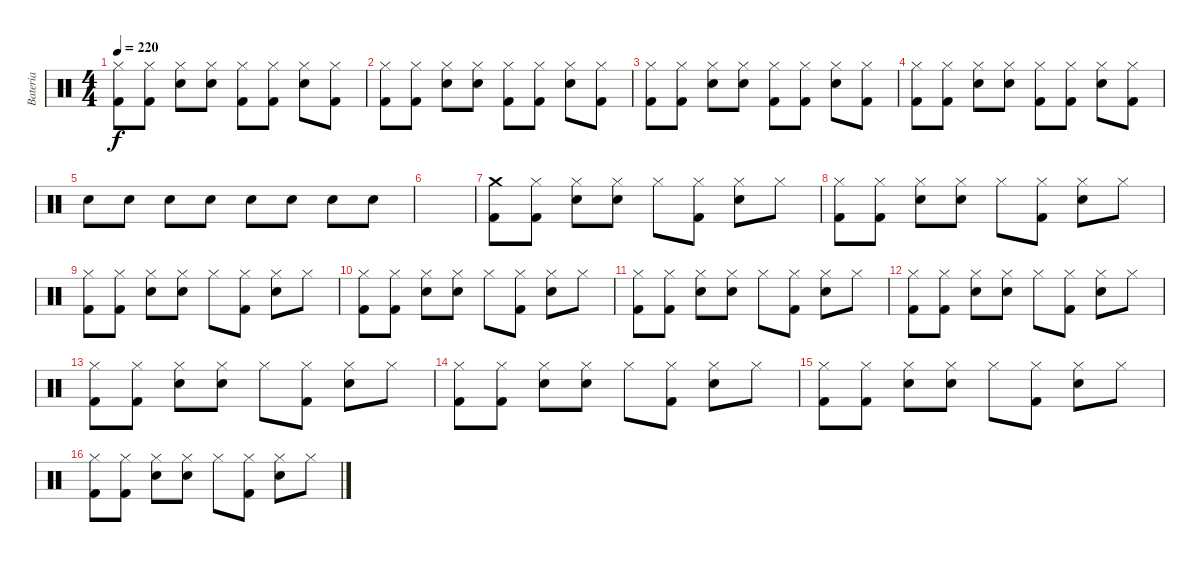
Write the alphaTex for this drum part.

\track ("Bateria" "Bateria") {instrument percussion}
\staff {score}
\articulation defaults
\ts (4 4)
\tempo 220
\clef neutral
\ks c
("Hi-Hat (closed)" "Kick (hit) 2").8{dy f} ("Hi-Hat (closed)" "Kick (hit) 2").8 ("Hi-Hat (closed)" "Electric Snare (hit)").8 ("Hi-Hat (closed)" "Electric Snare (hit)").8 ("Hi-Hat (closed)" "Kick (hit) 2").8 ("Hi-Hat (closed)" "Kick (hit) 2").8 ("Hi-Hat (closed)" "Electric Snare (hit)").8 ("Hi-Hat (closed)" "Kick (hit) 2").8 |
("Hi-Hat (closed)" "Kick (hit) 2").8 ("Hi-Hat (closed)" "Kick (hit) 2").8 ("Hi-Hat (closed)" "Electric Snare (hit)").8 ("Hi-Hat (closed)" "Electric Snare (hit)").8 ("Hi-Hat (closed)" "Kick (hit) 2").8 ("Hi-Hat (closed)" "Kick (hit) 2").8 ("Hi-Hat (closed)" "Electric Snare (hit)").8 ("Hi-Hat (closed)" "Kick (hit) 2").8 |
("Hi-Hat (closed)" "Kick (hit) 2").8 ("Hi-Hat (closed)" "Kick (hit) 2").8 ("Hi-Hat (closed)" "Electric Snare (hit)").8 ("Hi-Hat (closed)" "Electric Snare (hit)").8 ("Hi-Hat (closed)" "Kick (hit) 2").8 ("Hi-Hat (closed)" "Kick (hit) 2").8 ("Hi-Hat (closed)" "Electric Snare (hit)").8 ("Hi-Hat (closed)" "Kick (hit) 2").8 |
("Hi-Hat (closed)" "Kick (hit) 2").8 ("Hi-Hat (closed)" "Kick (hit) 2").8 ("Hi-Hat (closed)" "Electric Snare (hit)").8 ("Hi-Hat (closed)" "Electric Snare (hit)").8 ("Hi-Hat (closed)" "Kick (hit) 2").8 ("Hi-Hat (closed)" "Kick (hit) 2").8 ("Hi-Hat (closed)" "Electric Snare (hit)").8 ("Hi-Hat (closed)" "Kick (hit) 2").8 |
"Electric Snare (hit)".8 "Electric Snare (hit)".8 "Electric Snare (hit)".8 "Electric Snare (hit)".8 "Electric Snare (hit)".8 "Electric Snare (hit)".8 "Electric Snare (hit)".8 "Electric Snare (hit)".8 |
|
("Crash medium (hit)" "Kick (hit) 2").8 ("Hi-Hat (closed)" "Kick (hit) 2").8 ("Hi-Hat (closed)" "Electric Snare (hit)").8 ("Hi-Hat (closed)" "Electric Snare (hit)").8 "Hi-Hat (closed)".8 ("Hi-Hat (closed)" "Kick (hit) 2").8 ("Hi-Hat (closed)" "Electric Snare (hit)").8 "Hi-Hat (closed)".8 |
("Hi-Hat (closed)" "Kick (hit) 2").8 ("Hi-Hat (closed)" "Kick (hit) 2").8 ("Hi-Hat (closed)" "Electric Snare (hit)").8 ("Hi-Hat (closed)" "Electric Snare (hit)").8 "Hi-Hat (closed)".8 ("Hi-Hat (closed)" "Kick (hit) 2").8 ("Hi-Hat (closed)" "Electric Snare (hit)").8 "Hi-Hat (closed)".8 |
("Hi-Hat (closed)" "Kick (hit) 2").8 ("Hi-Hat (closed)" "Kick (hit) 2").8 ("Hi-Hat (closed)" "Electric Snare (hit)").8 ("Hi-Hat (closed)" "Electric Snare (hit)").8 "Hi-Hat (closed)".8 ("Hi-Hat (closed)" "Kick (hit) 2").8 ("Hi-Hat (closed)" "Electric Snare (hit)").8 "Hi-Hat (closed)".8 |
("Hi-Hat (closed)" "Kick (hit) 2").8 ("Hi-Hat (closed)" "Kick (hit) 2").8 ("Hi-Hat (closed)" "Electric Snare (hit)").8 ("Hi-Hat (closed)" "Electric Snare (hit)").8 "Hi-Hat (closed)".8 ("Hi-Hat (closed)" "Kick (hit) 2").8 ("Hi-Hat (closed)" "Electric Snare (hit)").8 "Hi-Hat (closed)".8 |
("Hi-Hat (closed)" "Kick (hit) 2").8 ("Hi-Hat (closed)" "Kick (hit) 2").8 ("Hi-Hat (closed)" "Electric Snare (hit)").8 ("Hi-Hat (closed)" "Electric Snare (hit)").8 "Hi-Hat (closed)".8 ("Hi-Hat (closed)" "Kick (hit) 2").8 ("Hi-Hat (closed)" "Electric Snare (hit)").8 "Hi-Hat (closed)".8 |
("Hi-Hat (closed)" "Kick (hit) 2").8 ("Hi-Hat (closed)" "Kick (hit) 2").8 ("Hi-Hat (closed)" "Electric Snare (hit)").8 ("Hi-Hat (closed)" "Electric Snare (hit)").8 "Hi-Hat (closed)".8 ("Hi-Hat (closed)" "Kick (hit) 2").8 ("Hi-Hat (closed)" "Electric Snare (hit)").8 "Hi-Hat (closed)".8 |
("Hi-Hat (closed)" "Kick (hit) 2").8 ("Hi-Hat (closed)" "Kick (hit) 2").8 ("Hi-Hat (closed)" "Electric Snare (hit)").8 ("Hi-Hat (closed)" "Electric Snare (hit)").8 "Hi-Hat (closed)".8 ("Hi-Hat (closed)" "Kick (hit) 2").8 ("Hi-Hat (closed)" "Electric Snare (hit)").8 "Hi-Hat (closed)".8 |
("Hi-Hat (closed)" "Kick (hit) 2").8 ("Hi-Hat (closed)" "Kick (hit) 2").8 ("Hi-Hat (closed)" "Electric Snare (hit)").8 ("Hi-Hat (closed)" "Electric Snare (hit)").8 "Hi-Hat (closed)".8 ("Hi-Hat (closed)" "Kick (hit) 2").8 ("Hi-Hat (closed)" "Electric Snare (hit)").8 "Hi-Hat (closed)".8 |
("Hi-Hat (closed)" "Kick (hit) 2").8 ("Hi-Hat (closed)" "Kick (hit) 2").8 ("Hi-Hat (closed)" "Electric Snare (hit)").8 ("Hi-Hat (closed)" "Electric Snare (hit)").8 "Hi-Hat (closed)".8 ("Hi-Hat (closed)" "Kick (hit) 2").8 ("Hi-Hat (closed)" "Electric Snare (hit)").8 "Hi-Hat (closed)".8 |
("Hi-Hat (closed)" "Kick (hit) 2").8 ("Hi-Hat (closed)" "Kick (hit) 2").8 ("Hi-Hat (closed)" "Electric Snare (hit)").8 ("Hi-Hat (closed)" "Electric Snare (hit)").8 "Hi-Hat (closed)".8 ("Hi-Hat (closed)" "Kick (hit) 2").8 ("Hi-Hat (closed)" "Electric Snare (hit)").8 "Hi-Hat (closed)".8
